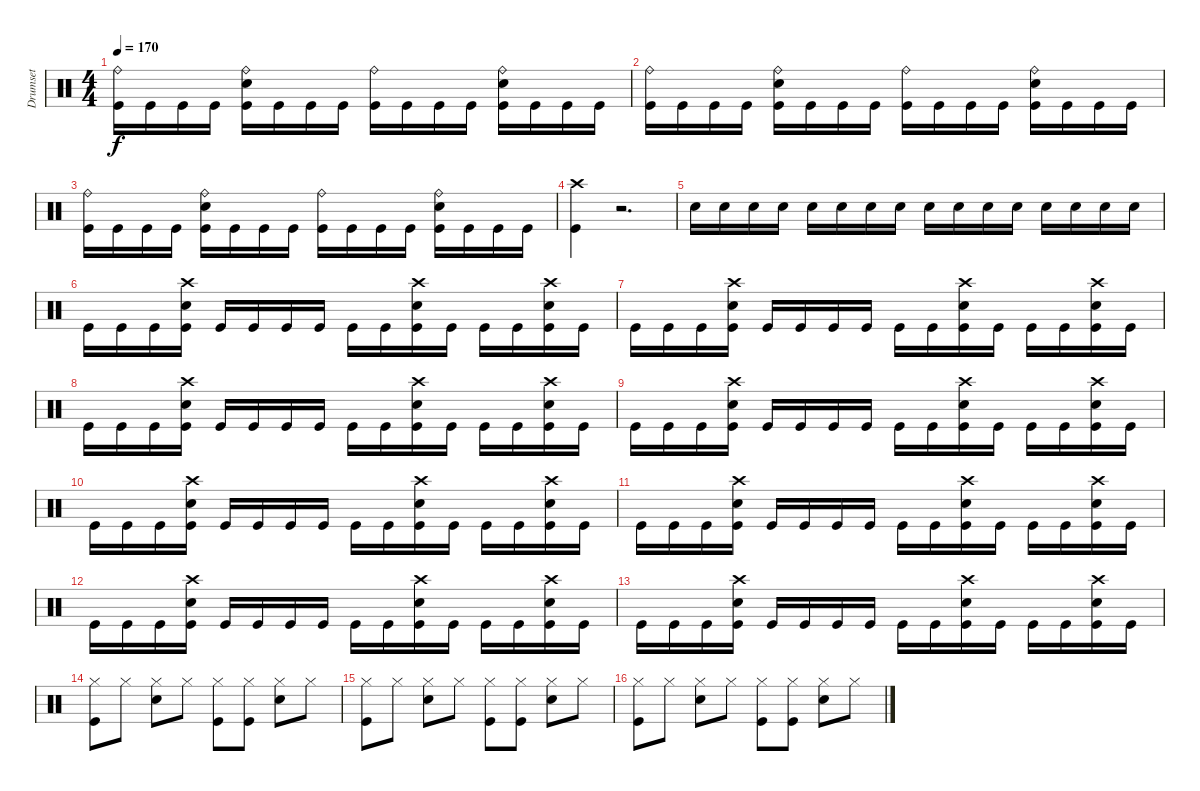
\track ("Drumset" "Drumset") {instrument percussion}
\staff {score}
\articulation defaults
\ts (4 4)
\tempo 170
\clef neutral
\ks c
("Ride (bell)" "Kick (hit)").16{dy f} "Kick (hit)".16 "Kick (hit)".16 "Kick (hit)".16 ("Ride (bell)" "Snare (hit) 2" "Kick (hit)").16 "Kick (hit)".16 "Kick (hit)".16 "Kick (hit)".16 ("Ride (bell)" "Kick (hit)").16 "Kick (hit)".16 "Kick (hit)".16 "Kick (hit)".16 ("Ride (bell)" "Snare (hit) 2" "Kick (hit)").16 "Kick (hit)".16 "Kick (hit)".16 "Kick (hit)".16 |
("Ride (bell)" "Kick (hit)").16 "Kick (hit)".16 "Kick (hit)".16 "Kick (hit)".16 ("Ride (bell)" "Snare (hit) 2" "Kick (hit)").16 "Kick (hit)".16 "Kick (hit)".16 "Kick (hit)".16 ("Ride (bell)" "Kick (hit)").16 "Kick (hit)".16 "Kick (hit)".16 "Kick (hit)".16 ("Ride (bell)" "Snare (hit) 2" "Kick (hit)").16 "Kick (hit)".16 "Kick (hit)".16 "Kick (hit)".16 |
("Ride (bell)" "Kick (hit)").16 "Kick (hit)".16 "Kick (hit)".16 "Kick (hit)".16 ("Ride (bell)" "Snare (hit) 2" "Kick (hit)").16 "Kick (hit)".16 "Kick (hit)".16 "Kick (hit)".16 ("Ride (bell)" "Kick (hit)").16 "Kick (hit)".16 "Kick (hit)".16 "Kick (hit)".16 ("Ride (bell)" "Snare (hit) 2" "Kick (hit)").16 "Kick (hit)".16 "Kick (hit)".16 "Kick (hit)".16 |
("Crash high (hit)" "Kick (hit)").4 r.2{d} |
"Snare (hit) 2".16 "Snare (hit) 2".16 "Snare (hit) 2".16 "Snare (hit) 2".16 "Snare (hit) 2".16 "Snare (hit) 2".16 "Snare (hit) 2".16 "Snare (hit) 2".16 "Snare (hit) 2".16 "Snare (hit) 2".16 "Snare (hit) 2".16 "Snare (hit) 2".16 "Snare (hit) 2".16 "Snare (hit) 2".16 "Snare (hit) 2".16 "Snare (hit) 2".16 |
"Kick (hit)".16 "Kick (hit)".16 "Kick (hit)".16 ("Crash high (hit)" "Snare (hit) 2" "Kick (hit)").16 "Kick (hit)".16 "Kick (hit)".16 "Kick (hit)".16 "Kick (hit)".16 "Kick (hit)".16 "Kick (hit)".16 ("Crash high (hit)" "Snare (hit) 2" "Kick (hit)").16 "Kick (hit)".16 "Kick (hit)".16 "Kick (hit)".16 ("Crash high (hit)" "Snare (hit) 2" "Kick (hit)").16 "Kick (hit)".16 |
"Kick (hit)".16 "Kick (hit)".16 "Kick (hit)".16 ("Crash high (hit)" "Snare (hit) 2" "Kick (hit)").16 "Kick (hit)".16 "Kick (hit)".16 "Kick (hit)".16 "Kick (hit)".16 "Kick (hit)".16 "Kick (hit)".16 ("Crash high (hit)" "Snare (hit) 2" "Kick (hit)").16 "Kick (hit)".16 "Kick (hit)".16 "Kick (hit)".16 ("Crash high (hit)" "Snare (hit) 2" "Kick (hit)").16 "Kick (hit)".16 |
"Kick (hit)".16 "Kick (hit)".16 "Kick (hit)".16 ("Crash high (hit)" "Snare (hit) 2" "Kick (hit)").16 "Kick (hit)".16 "Kick (hit)".16 "Kick (hit)".16 "Kick (hit)".16 "Kick (hit)".16 "Kick (hit)".16 ("Crash high (hit)" "Snare (hit) 2" "Kick (hit)").16 "Kick (hit)".16 "Kick (hit)".16 "Kick (hit)".16 ("Crash high (hit)" "Snare (hit) 2" "Kick (hit)").16 "Kick (hit)".16 |
"Kick (hit)".16 "Kick (hit)".16 "Kick (hit)".16 ("Crash high (hit)" "Snare (hit) 2" "Kick (hit)").16 "Kick (hit)".16 "Kick (hit)".16 "Kick (hit)".16 "Kick (hit)".16 "Kick (hit)".16 "Kick (hit)".16 ("Crash high (hit)" "Snare (hit) 2" "Kick (hit)").16 "Kick (hit)".16 "Kick (hit)".16 "Kick (hit)".16 ("Crash high (hit)" "Snare (hit) 2" "Kick (hit)").16 "Kick (hit)".16 |
"Kick (hit)".16 "Kick (hit)".16 "Kick (hit)".16 ("Crash high (hit)" "Snare (hit) 2" "Kick (hit)").16 "Kick (hit)".16 "Kick (hit)".16 "Kick (hit)".16 "Kick (hit)".16 "Kick (hit)".16 "Kick (hit)".16 ("Crash high (hit)" "Snare (hit) 2" "Kick (hit)").16 "Kick (hit)".16 "Kick (hit)".16 "Kick (hit)".16 ("Crash high (hit)" "Snare (hit) 2" "Kick (hit)").16 "Kick (hit)".16 |
"Kick (hit)".16 "Kick (hit)".16 "Kick (hit)".16 ("Crash high (hit)" "Snare (hit) 2" "Kick (hit)").16 "Kick (hit)".16 "Kick (hit)".16 "Kick (hit)".16 "Kick (hit)".16 "Kick (hit)".16 "Kick (hit)".16 ("Crash high (hit)" "Snare (hit) 2" "Kick (hit)").16 "Kick (hit)".16 "Kick (hit)".16 "Kick (hit)".16 ("Crash high (hit)" "Snare (hit) 2" "Kick (hit)").16 "Kick (hit)".16 |
"Kick (hit)".16 "Kick (hit)".16 "Kick (hit)".16 ("Crash high (hit)" "Snare (hit) 2" "Kick (hit)").16 "Kick (hit)".16 "Kick (hit)".16 "Kick (hit)".16 "Kick (hit)".16 "Kick (hit)".16 "Kick (hit)".16 ("Crash high (hit)" "Snare (hit) 2" "Kick (hit)").16 "Kick (hit)".16 "Kick (hit)".16 "Kick (hit)".16 ("Crash high (hit)" "Snare (hit) 2" "Kick (hit)").16 "Kick (hit)".16 |
"Kick (hit)".16 "Kick (hit)".16 "Kick (hit)".16 ("Crash high (hit)" "Snare (hit) 2" "Kick (hit)").16 "Kick (hit)".16 "Kick (hit)".16 "Kick (hit)".16 "Kick (hit)".16 "Kick (hit)".16 "Kick (hit)".16 ("Crash high (hit)" "Snare (hit) 2" "Kick (hit)").16 "Kick (hit)".16 "Kick (hit)".16 "Kick (hit)".16 ("Crash high (hit)" "Snare (hit) 2" "Kick (hit)").16 "Kick (hit)".16 |
("Hi-Hat (closed)" "Kick (hit)").8 "Hi-Hat (closed)".8 ("Hi-Hat (closed)" "Snare (hit) 2").8 "Hi-Hat (closed)".8 ("Hi-Hat (closed)" "Kick (hit)").8 ("Hi-Hat (closed)" "Kick (hit)").8 ("Hi-Hat (closed)" "Snare (hit) 2").8 "Hi-Hat (closed)".8 |
("Hi-Hat (closed)" "Kick (hit)").8 "Hi-Hat (closed)".8 ("Hi-Hat (closed)" "Snare (hit) 2").8 "Hi-Hat (closed)".8 ("Hi-Hat (closed)" "Kick (hit)").8 ("Hi-Hat (closed)" "Kick (hit)").8 ("Hi-Hat (closed)" "Snare (hit) 2").8 "Hi-Hat (closed)".8 |
("Hi-Hat (closed)" "Kick (hit)").8 "Hi-Hat (closed)".8 ("Hi-Hat (closed)" "Snare (hit) 2").8 "Hi-Hat (closed)".8 ("Hi-Hat (closed)" "Kick (hit)").8 ("Hi-Hat (closed)" "Kick (hit)").8 ("Hi-Hat (closed)" "Snare (hit) 2").8 "Hi-Hat (closed)".8
